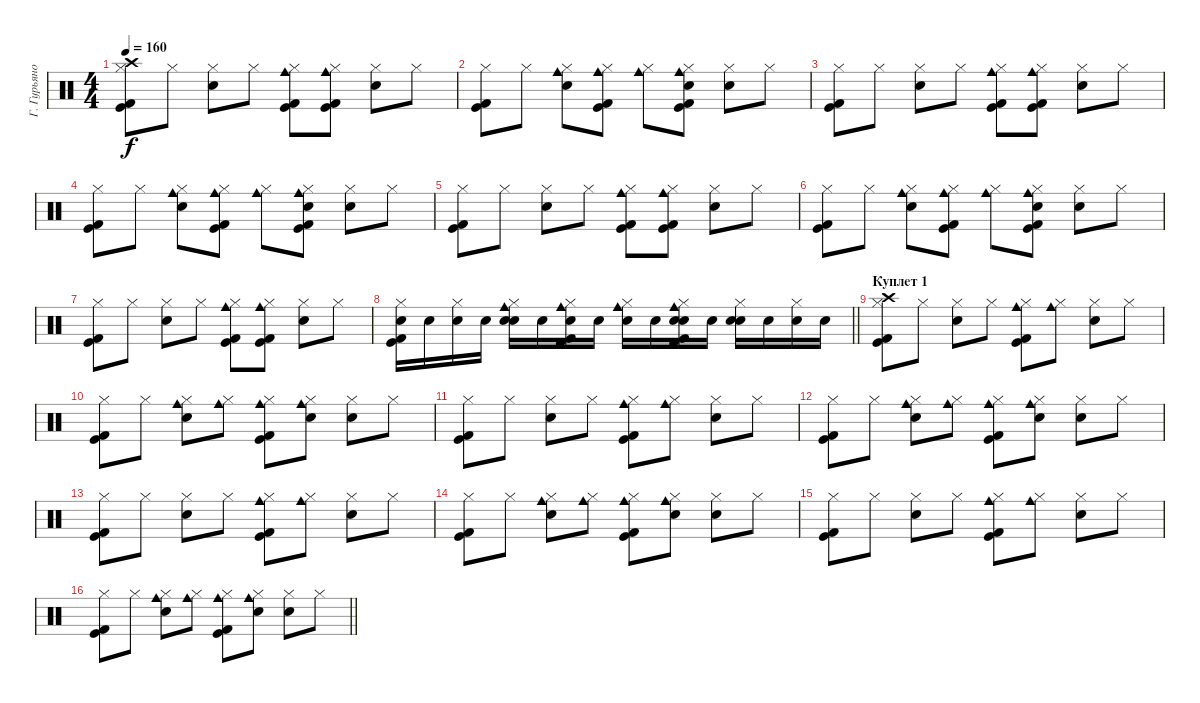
\track ("Г. Гурьянов" "Г. Гурьяно") {instrument percussion}
\staff
\articulation defaults
\ts (4 4)
\tempo 160
\clef neutral
\ks c
("Hi-Hat (closed)" "Crash high (hit)" "Kick (hit)" "Kick (hit) 2").8{dy f} "Hi-Hat (closed)".8 ("Hi-Hat (closed)" "Snare (hit) 2").8 "Hi-Hat (closed)".8 ("Hi-Hat (closed)" "Cowbell medium (hit)" "Kick (hit)" "Kick (hit) 2").8 ("Hi-Hat (closed)" "Cowbell medium (hit)" "Kick (hit)" "Kick (hit) 2").8 ("Hi-Hat (closed)" "Snare (hit) 2").8 "Hi-Hat (closed)".8 |
("Hi-Hat (closed)" "Kick (hit)" "Kick (hit) 2").8 "Hi-Hat (closed)".8 ("Hi-Hat (closed)" "Cowbell medium (hit)" "Snare (hit) 2").8 ("Hi-Hat (closed)" "Cowbell medium (hit)" "Kick (hit)" "Kick (hit) 2").8 ("Hi-Hat (closed)" "Cowbell medium (hit)").8 ("Hi-Hat (closed)" "Cowbell medium (hit)" "Hand Clap (hit)" "Kick (hit)" "Kick (hit) 2").8 ("Hi-Hat (closed)" "Snare (hit) 2").8 "Hi-Hat (closed)".8 |
("Hi-Hat (closed)" "Kick (hit)" "Kick (hit) 2").8 "Hi-Hat (closed)".8 ("Hi-Hat (closed)" "Snare (hit) 2").8 "Hi-Hat (closed)".8 ("Hi-Hat (closed)" "Cowbell medium (hit)" "Kick (hit)" "Kick (hit) 2").8 ("Hi-Hat (closed)" "Cowbell medium (hit)" "Kick (hit)" "Kick (hit) 2").8 ("Hi-Hat (closed)" "Snare (hit) 2").8 "Hi-Hat (closed)".8 |
("Hi-Hat (closed)" "Kick (hit)" "Kick (hit) 2").8 "Hi-Hat (closed)".8 ("Hi-Hat (closed)" "Cowbell medium (hit)" "Snare (hit) 2").8 ("Hi-Hat (closed)" "Cowbell medium (hit)" "Kick (hit)" "Kick (hit) 2").8 ("Hi-Hat (closed)" "Cowbell medium (hit)").8 ("Hi-Hat (closed)" "Cowbell medium (hit)" "Hand Clap (hit)" "Kick (hit)" "Kick (hit) 2").8 ("Hi-Hat (closed)" "Snare (hit) 2").8 "Hi-Hat (closed)".8 |
("Hi-Hat (closed)" "Kick (hit)" "Kick (hit) 2").8 "Hi-Hat (closed)".8 ("Hi-Hat (closed)" "Snare (hit) 2").8 "Hi-Hat (closed)".8 ("Hi-Hat (closed)" "Cowbell medium (hit)" "Kick (hit)" "Kick (hit) 2").8 ("Hi-Hat (closed)" "Cowbell medium (hit)" "Kick (hit)" "Kick (hit) 2").8 ("Hi-Hat (closed)" "Snare (hit) 2").8 "Hi-Hat (closed)".8 |
("Hi-Hat (closed)" "Kick (hit)" "Kick (hit) 2").8 "Hi-Hat (closed)".8 ("Hi-Hat (closed)" "Cowbell medium (hit)" "Snare (hit) 2").8 ("Hi-Hat (closed)" "Cowbell medium (hit)" "Kick (hit)" "Kick (hit) 2").8 ("Hi-Hat (closed)" "Cowbell medium (hit)").8 ("Hi-Hat (closed)" "Cowbell medium (hit)" "Hand Clap (hit)" "Kick (hit)" "Kick (hit) 2").8 ("Hi-Hat (closed)" "Snare (hit) 2").8 "Hi-Hat (closed)".8 |
("Hi-Hat (closed)" "Kick (hit)" "Kick (hit) 2").8 "Hi-Hat (closed)".8 ("Hi-Hat (closed)" "Snare (hit) 2").8 "Hi-Hat (closed)".8 ("Hi-Hat (closed)" "Cowbell medium (hit)" "Kick (hit)" "Kick (hit) 2").8 ("Hi-Hat (closed)" "Cowbell medium (hit)" "Kick (hit)" "Kick (hit) 2").8 ("Hi-Hat (closed)" "Snare (hit) 2").8 "Hi-Hat (closed)".8 |
\barLineRight lightlight
("Hi-Hat (closed)" "Electric Snare (hit)" "Kick (hit)" "Kick (hit) 2").16 "Electric Snare (hit)".16 ("Hi-Hat (closed)" "Electric Snare (hit)").16 "Electric Snare (hit)".16 ("Hi-Hat (closed)" "Electric Snare (hit)" "Snare (hit) 2" "Cowbell medium (hit)").16 "Electric Snare (hit)".16 ("Hi-Hat (closed)" "Electric Snare (hit)" "Cowbell medium (hit)" "Kick (hit)" "Kick (hit) 2").16 "Electric Snare (hit)".16 ("Hi-Hat (closed)" "Electric Snare (hit)" "Cowbell medium (hit)").16 "Electric Snare (hit)".16 ("Hi-Hat (closed)" "Electric Snare (hit)" "Kick (hit)" "Cowbell medium (hit)" "Hand Clap (hit)" "Kick (hit) 2").16 "Electric Snare (hit)".16 ("Hi-Hat (closed)" "Electric Snare (hit)" "Snare (hit) 2").16 "Electric Snare (hit)".16 ("Hi-Hat (closed)" "Electric Snare (hit)").16 "Electric Snare (hit)".16 |
\section ("" "Куплет 1")
("Hi-Hat (closed)" "Crash high (hit)" "Kick (hit)" "Kick (hit) 2").8 "Hi-Hat (closed)".8 ("Hi-Hat (closed)" "Snare (hit) 2").8 "Hi-Hat (closed)".8 ("Hi-Hat (closed)" "Cowbell medium (hit)" "Kick (hit)" "Kick (hit) 2").8 ("Hi-Hat (closed)" "Cowbell medium (hit)").8 ("Hi-Hat (closed)" "Snare (hit) 2").8 "Hi-Hat (closed)".8 |
("Hi-Hat (closed)" "Kick (hit)" "Kick (hit) 2").8 "Hi-Hat (closed)".8 ("Hi-Hat (closed)" "Cowbell medium (hit)" "Snare (hit) 2").8 ("Hi-Hat (closed)" "Cowbell medium (hit)").8 ("Hi-Hat (closed)" "Cowbell medium (hit)" "Kick (hit)" "Kick (hit) 2").8 ("Hi-Hat (closed)" "Cowbell medium (hit)" "Hand Clap (hit)").8 ("Hi-Hat (closed)" "Snare (hit) 2").8 "Hi-Hat (closed)".8 |
("Hi-Hat (closed)" "Kick (hit)" "Kick (hit) 2").8 "Hi-Hat (closed)".8 ("Hi-Hat (closed)" "Snare (hit) 2").8 "Hi-Hat (closed)".8 ("Hi-Hat (closed)" "Cowbell medium (hit)" "Kick (hit)" "Kick (hit) 2").8 ("Hi-Hat (closed)" "Cowbell medium (hit)").8 ("Hi-Hat (closed)" "Snare (hit) 2").8 "Hi-Hat (closed)".8 |
("Hi-Hat (closed)" "Kick (hit)" "Kick (hit) 2").8 "Hi-Hat (closed)".8 ("Hi-Hat (closed)" "Cowbell medium (hit)" "Snare (hit) 2").8 ("Hi-Hat (closed)" "Cowbell medium (hit)").8 ("Hi-Hat (closed)" "Cowbell medium (hit)" "Kick (hit)" "Kick (hit) 2").8 ("Hi-Hat (closed)" "Cowbell medium (hit)" "Hand Clap (hit)").8 ("Hi-Hat (closed)" "Snare (hit) 2").8 "Hi-Hat (closed)".8 |
("Hi-Hat (closed)" "Kick (hit)" "Kick (hit) 2").8 "Hi-Hat (closed)".8 ("Hi-Hat (closed)" "Snare (hit) 2").8 "Hi-Hat (closed)".8 ("Hi-Hat (closed)" "Cowbell medium (hit)" "Kick (hit)" "Kick (hit) 2").8 ("Hi-Hat (closed)" "Cowbell medium (hit)").8 ("Hi-Hat (closed)" "Snare (hit) 2").8 "Hi-Hat (closed)".8 |
("Hi-Hat (closed)" "Kick (hit)" "Kick (hit) 2").8 "Hi-Hat (closed)".8 ("Hi-Hat (closed)" "Cowbell medium (hit)" "Snare (hit) 2").8 ("Hi-Hat (closed)" "Cowbell medium (hit)").8 ("Hi-Hat (closed)" "Cowbell medium (hit)" "Kick (hit)" "Kick (hit) 2").8 ("Hi-Hat (closed)" "Cowbell medium (hit)" "Hand Clap (hit)").8 ("Hi-Hat (closed)" "Snare (hit) 2").8 "Hi-Hat (closed)".8 |
("Hi-Hat (closed)" "Kick (hit)" "Kick (hit) 2").8 "Hi-Hat (closed)".8 ("Hi-Hat (closed)" "Snare (hit) 2").8 "Hi-Hat (closed)".8 ("Hi-Hat (closed)" "Cowbell medium (hit)" "Kick (hit)" "Kick (hit) 2").8 ("Hi-Hat (closed)" "Cowbell medium (hit)").8 ("Hi-Hat (closed)" "Snare (hit) 2").8 "Hi-Hat (closed)".8 |
\barLineRight lightlight
("Hi-Hat (closed)" "Kick (hit)" "Kick (hit) 2").8 "Hi-Hat (closed)".8 ("Hi-Hat (closed)" "Cowbell medium (hit)" "Snare (hit) 2").8 ("Hi-Hat (closed)" "Cowbell medium (hit)").8 ("Hi-Hat (closed)" "Cowbell medium (hit)" "Kick (hit)" "Kick (hit) 2").8 ("Hi-Hat (closed)" "Cowbell medium (hit)" "Hand Clap (hit)").8 ("Hi-Hat (closed)" "Snare (hit) 2").8 "Hi-Hat (closed)".8
